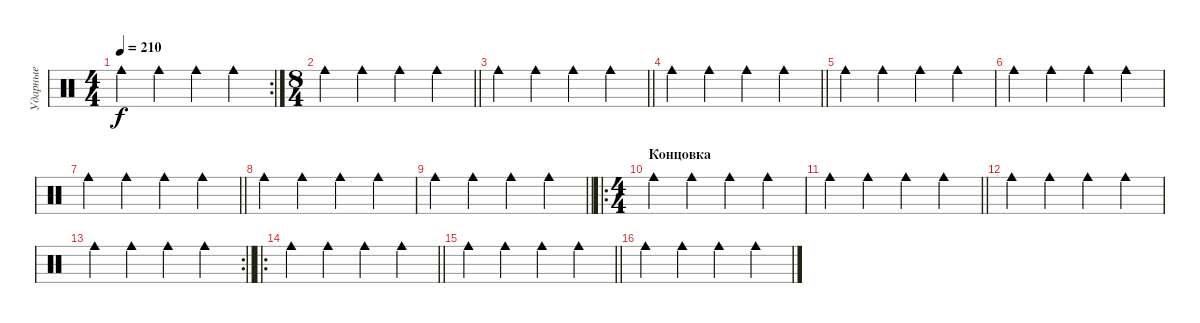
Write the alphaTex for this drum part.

\track ("Ударные" "Ударные") {mute instrument percussion}
\staff {score}
\articulation defaults
\rc 2
\ts (4 4)
\tempo 210
\clef neutral
\ks c "Cowbell medium (hit)".4{dy f} "Cowbell medium (hit)".4 "Cowbell medium (hit)".4 "Cowbell medium (hit)".4
|
\ts (8 4)
\barLineRight lightlight "Cowbell medium (hit)".4 "Cowbell medium (hit)".4 "Cowbell medium (hit)".4 "Cowbell medium (hit)".4
|
\barLineRight lightlight "Cowbell medium (hit)".4 "Cowbell medium (hit)".4 "Cowbell medium (hit)".4 "Cowbell medium (hit)".4
|
\barLineRight lightlight "Cowbell medium (hit)".4 "Cowbell medium (hit)".4 "Cowbell medium (hit)".4 "Cowbell medium (hit)".4
|
"Cowbell medium (hit)".4 "Cowbell medium (hit)".4 "Cowbell medium (hit)".4 "Cowbell medium (hit)".4 |
"Cowbell medium (hit)".4 "Cowbell medium (hit)".4 "Cowbell medium (hit)".4 "Cowbell medium (hit)".4 |
\barLineRight lightlight "Cowbell medium (hit)".4 "Cowbell medium (hit)".4 "Cowbell medium (hit)".4 "Cowbell medium (hit)".4
|
"Cowbell medium (hit)".4 "Cowbell medium (hit)".4 "Cowbell medium (hit)".4 "Cowbell medium (hit)".4 |
\barLineRight lightlight "Cowbell medium (hit)".4 "Cowbell medium (hit)".4 "Cowbell medium (hit)".4 "Cowbell medium (hit)".4
|
\ro
\ts (4 4)
\section ("" "Концовка")
"Cowbell medium (hit)".4 "Cowbell medium (hit)".4 "Cowbell medium (hit)".4 "Cowbell medium (hit)".4 |
\barLineRight lightlight "Cowbell medium (hit)".4 "Cowbell medium (hit)".4 "Cowbell medium (hit)".4 "Cowbell medium (hit)".4
|
"Cowbell medium (hit)".4 "Cowbell medium (hit)".4 "Cowbell medium (hit)".4 "Cowbell medium (hit)".4 |
\rc 2
\barLineRight lightlight "Cowbell medium (hit)".4 "Cowbell medium (hit)".4 "Cowbell medium (hit)".4 "Cowbell medium (hit)".4
|
\ro
\barLineRight lightlight "Cowbell medium (hit)".4 "Cowbell medium (hit)".4 "Cowbell medium (hit)".4 "Cowbell medium (hit)".4
|
\barLineRight lightlight "Cowbell medium (hit)".4 "Cowbell medium (hit)".4 "Cowbell medium (hit)".4 "Cowbell medium (hit)".4
|
"Cowbell medium (hit)".4 "Cowbell medium (hit)".4 "Cowbell medium (hit)".4 "Cowbell medium (hit)".4
